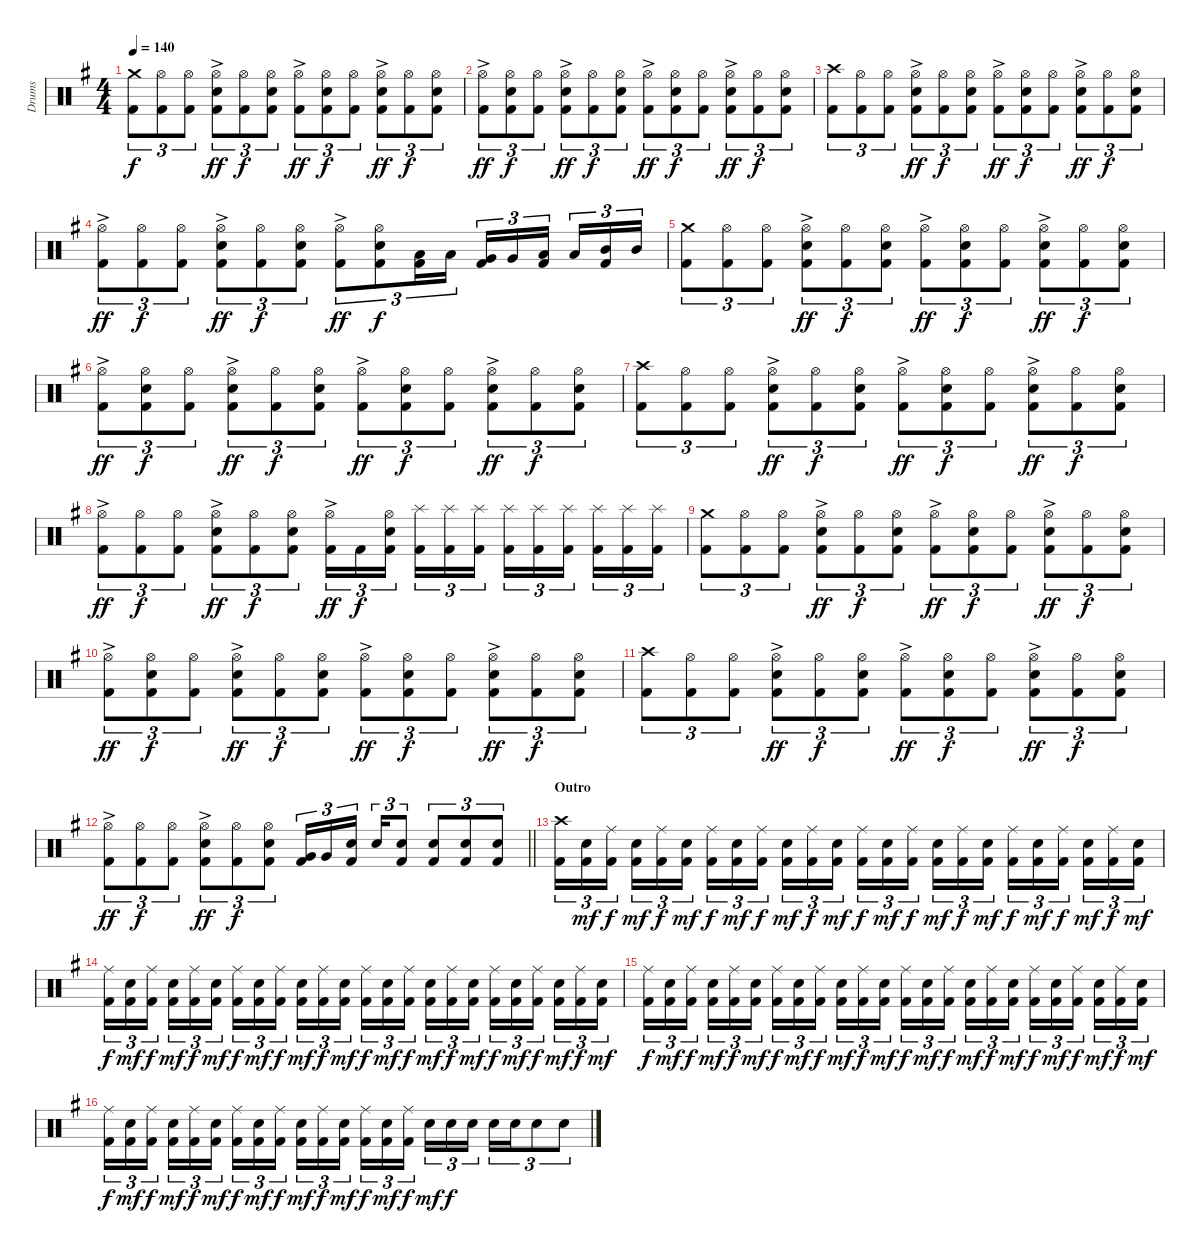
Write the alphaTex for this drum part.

\track ("Drums" "Drums") {instrument percussion}
\staff {score}
\articulation defaults
\ts (4 4)
\tempo 140
\clef neutral
\ks eminor
("Crash medium (hit)" "Kick (hit) 2").8{tu (3 2) dy f} ("Hi-Hat (open)" "Kick (hit) 2").8{tu (3 2)} ("Hi-Hat (open)" "Kick (hit) 2").8{tu (3 2)} ("Hi-Hat (open)"{ac} "Electric Snare (hit)" "Kick (hit) 2").8{tu (3 2) dy ff} ("Hi-Hat (open)" "Kick (hit) 2").8{tu (3 2) dy f} ("Hi-Hat (open)" "Electric Snare (hit)" "Kick (hit) 2").8{tu (3 2)} ("Hi-Hat (open)"{ac} "Kick (hit) 2").8{tu (3 2) dy ff} ("Hi-Hat (open)" "Electric Snare (hit)" "Kick (hit) 2").8{tu (3 2) dy f} ("Hi-Hat (open)" "Kick (hit) 2").8{tu (3 2)} ("Hi-Hat (open)"{ac} "Electric Snare (hit)" "Kick (hit) 2").8{tu (3 2) dy ff} ("Hi-Hat (open)" "Kick (hit) 2").8{tu (3 2) dy f} ("Hi-Hat (open)" "Electric Snare (hit)" "Kick (hit) 2").8{tu (3 2)} |
("Hi-Hat (open)"{ac} "Kick (hit) 2").8{tu (3 2) dy ff} ("Hi-Hat (open)" "Electric Snare (hit)" "Kick (hit) 2").8{tu (3 2) dy f} ("Hi-Hat (open)" "Kick (hit) 2").8{tu (3 2)} ("Hi-Hat (open)"{ac} "Electric Snare (hit)" "Kick (hit) 2").8{tu (3 2) dy ff} ("Hi-Hat (open)" "Kick (hit) 2").8{tu (3 2) dy f} ("Hi-Hat (open)" "Electric Snare (hit)" "Kick (hit) 2").8{tu (3 2)} ("Hi-Hat (open)"{ac} "Kick (hit) 2").8{tu (3 2) dy ff} ("Hi-Hat (open)" "Electric Snare (hit)" "Kick (hit) 2").8{tu (3 2) dy f} ("Hi-Hat (open)" "Kick (hit) 2").8{tu (3 2)} ("Hi-Hat (open)"{ac} "Electric Snare (hit)" "Kick (hit) 2").8{tu (3 2) dy ff} ("Hi-Hat (open)" "Kick (hit) 2").8{tu (3 2) dy f} ("Hi-Hat (open)" "Electric Snare (hit)" "Kick (hit) 2").8{tu (3 2)} |
("Crash high (hit)" "Kick (hit) 2").8{tu (3 2)} ("Hi-Hat (open)" "Kick (hit) 2").8{tu (3 2)} ("Hi-Hat (open)" "Kick (hit) 2").8{tu (3 2)} ("Hi-Hat (open)"{ac} "Electric Snare (hit)" "Kick (hit) 2").8{tu (3 2) dy ff} ("Hi-Hat (open)" "Kick (hit) 2").8{tu (3 2) dy f} ("Hi-Hat (open)" "Electric Snare (hit)" "Kick (hit) 2").8{tu (3 2)} ("Hi-Hat (open)"{ac} "Kick (hit) 2").8{tu (3 2) dy ff} ("Hi-Hat (open)" "Electric Snare (hit)" "Kick (hit) 2").8{tu (3 2) dy f} ("Hi-Hat (open)" "Kick (hit) 2").8{tu (3 2)} ("Hi-Hat (open)"{ac} "Electric Snare (hit)" "Kick (hit) 2").8{tu (3 2) dy ff} ("Hi-Hat (open)" "Kick (hit) 2").8{tu (3 2) dy f} ("Hi-Hat (open)" "Electric Snare (hit)" "Kick (hit) 2").8{tu (3 2)} |
("Hi-Hat (open)"{ac} "Kick (hit) 2").8{tu (3 2) dy ff} ("Hi-Hat (open)" "Kick (hit) 2").8{tu (3 2) dy f} ("Hi-Hat (open)" "Kick (hit) 2").8{tu (3 2)} ("Hi-Hat (open)"{ac} "Electric Snare (hit)" "Kick (hit) 2").8{tu (3 2) dy ff} ("Hi-Hat (open)" "Kick (hit) 2").8{tu (3 2) dy f} ("Hi-Hat (open)" "Electric Snare (hit)" "Kick (hit) 2").8{tu (3 2)} ("Hi-Hat (open)"{ac} "Kick (hit) 2").8{tu (3 2) dy ff} ("Hi-Hat (open)" "Electric Snare (hit)" "Kick (hit) 2").8{tu (3 2) dy f} ("Low Tom (hit)" "Kick (hit) 2").16{tu (3 2)} "Low Tom (hit)".16{tu (3 2)} ("Very Low Tom (hit)" "Kick (hit) 2").16{tu (3 2)} "Very Low Tom (hit)".16{tu (3 2)} ("Low Tom (hit)" "Kick (hit) 2").16{tu (3 2) beam splitsecondary} "Low Tom (hit)".16{tu (3 2)} ("Mid Tom (hit)" "Kick (hit) 2").16{tu (3 2)} "Mid Tom (hit)".16{tu (3 2)} |
("Crash medium (hit)" "Kick (hit) 2").8{tu (3 2)} ("Hi-Hat (open)" "Kick (hit) 2").8{tu (3 2)} ("Hi-Hat (open)" "Kick (hit) 2").8{tu (3 2)} ("Hi-Hat (open)"{ac} "Electric Snare (hit)" "Kick (hit) 2").8{tu (3 2) dy ff} ("Hi-Hat (open)" "Kick (hit) 2").8{tu (3 2) dy f} ("Hi-Hat (open)" "Electric Snare (hit)" "Kick (hit) 2").8{tu (3 2)} ("Hi-Hat (open)"{ac} "Kick (hit) 2").8{tu (3 2) dy ff} ("Hi-Hat (open)" "Electric Snare (hit)" "Kick (hit) 2").8{tu (3 2) dy f} ("Hi-Hat (open)" "Kick (hit) 2").8{tu (3 2)} ("Hi-Hat (open)"{ac} "Electric Snare (hit)" "Kick (hit) 2").8{tu (3 2) dy ff} ("Hi-Hat (open)" "Kick (hit) 2").8{tu (3 2) dy f} ("Hi-Hat (open)" "Electric Snare (hit)" "Kick (hit) 2").8{tu (3 2)} |
("Hi-Hat (open)"{ac} "Kick (hit) 2").8{tu (3 2) dy ff} ("Hi-Hat (open)" "Electric Snare (hit)" "Kick (hit) 2").8{tu (3 2) dy f} ("Hi-Hat (open)" "Kick (hit) 2").8{tu (3 2)} ("Hi-Hat (open)"{ac} "Electric Snare (hit)" "Kick (hit) 2").8{tu (3 2) dy ff} ("Hi-Hat (open)" "Kick (hit) 2").8{tu (3 2) dy f} ("Hi-Hat (open)" "Electric Snare (hit)" "Kick (hit) 2").8{tu (3 2)} ("Hi-Hat (open)"{ac} "Kick (hit) 2").8{tu (3 2) dy ff} ("Hi-Hat (open)" "Electric Snare (hit)" "Kick (hit) 2").8{tu (3 2) dy f} ("Hi-Hat (open)" "Kick (hit) 2").8{tu (3 2)} ("Hi-Hat (open)"{ac} "Electric Snare (hit)" "Kick (hit) 2").8{tu (3 2) dy ff} ("Hi-Hat (open)" "Kick (hit) 2").8{tu (3 2) dy f} ("Hi-Hat (open)" "Electric Snare (hit)" "Kick (hit) 2").8{tu (3 2)} |
("Crash high (hit)" "Kick (hit) 2").8{tu (3 2)} ("Hi-Hat (open)" "Kick (hit) 2").8{tu (3 2)} ("Hi-Hat (open)" "Kick (hit) 2").8{tu (3 2)} ("Hi-Hat (open)"{ac} "Electric Snare (hit)" "Kick (hit) 2").8{tu (3 2) dy ff} ("Hi-Hat (open)" "Kick (hit) 2").8{tu (3 2) dy f} ("Hi-Hat (open)" "Electric Snare (hit)" "Kick (hit) 2").8{tu (3 2)} ("Hi-Hat (open)"{ac} "Kick (hit) 2").8{tu (3 2) dy ff} ("Hi-Hat (open)" "Electric Snare (hit)" "Kick (hit) 2").8{tu (3 2) dy f} ("Hi-Hat (open)" "Kick (hit) 2").8{tu (3 2)} ("Hi-Hat (open)"{ac} "Electric Snare (hit)" "Kick (hit) 2").8{tu (3 2) dy ff} ("Hi-Hat (open)" "Kick (hit) 2").8{tu (3 2) dy f} ("Hi-Hat (open)" "Electric Snare (hit)" "Kick (hit) 2").8{tu (3 2)} |
("Hi-Hat (open)"{ac} "Kick (hit) 2").8{tu (3 2) dy ff} ("Hi-Hat (open)" "Kick (hit) 2").8{tu (3 2) dy f} ("Hi-Hat (open)" "Kick (hit) 2").8{tu (3 2)} ("Hi-Hat (open)"{ac} "Electric Snare (hit)" "Kick (hit) 2").8{tu (3 2) dy ff} ("Hi-Hat (open)" "Kick (hit) 2").8{tu (3 2) dy f} ("Hi-Hat (open)" "Electric Snare (hit)" "Kick (hit) 2").8{tu (3 2)} ("Hi-Hat (open)"{ac} "Kick (hit) 2").16{tu (3 2) dy ff} "Kick (hit) 2".16{tu (3 2) dy f} ("Hi-Hat (open)" "Electric Snare (hit)" "Kick (hit) 2").16{tu (3 2) beam splitsecondary} ("Splash (hit)" "Kick (hit) 2").16{tu (3 2)} ("Splash (hit)" "Kick (hit) 2").16{tu (3 2)} ("Splash (hit)" "Kick (hit) 2").16{tu (3 2)} ("Splash (hit)" "Kick (hit) 2").16{tu (3 2)} ("Splash (hit)" "Kick (hit) 2").16{tu (3 2)} ("Splash (hit)" "Kick (hit) 2").16{tu (3 2) beam splitsecondary} ("Splash (hit)" "Kick (hit) 2").16{tu (3 2)} ("Splash (hit)" "Kick (hit) 2").16{tu (3 2)} ("Splash (hit)" "Kick (hit) 2").16{tu (3 2)} |
("Crash medium (hit)" "Kick (hit) 2").8{tu (3 2)} ("Hi-Hat (open)" "Kick (hit) 2").8{tu (3 2)} ("Hi-Hat (open)" "Kick (hit) 2").8{tu (3 2)} ("Hi-Hat (open)"{ac} "Electric Snare (hit)" "Kick (hit) 2").8{tu (3 2) dy ff} ("Hi-Hat (open)" "Kick (hit) 2").8{tu (3 2) dy f} ("Hi-Hat (open)" "Electric Snare (hit)" "Kick (hit) 2").8{tu (3 2)} ("Hi-Hat (open)"{ac} "Kick (hit) 2").8{tu (3 2) dy ff} ("Hi-Hat (open)" "Electric Snare (hit)" "Kick (hit) 2").8{tu (3 2) dy f} ("Hi-Hat (open)" "Kick (hit) 2").8{tu (3 2)} ("Hi-Hat (open)"{ac} "Electric Snare (hit)" "Kick (hit) 2").8{tu (3 2) dy ff} ("Hi-Hat (open)" "Kick (hit) 2").8{tu (3 2) dy f} ("Hi-Hat (open)" "Electric Snare (hit)" "Kick (hit) 2").8{tu (3 2)} |
("Hi-Hat (open)"{ac} "Kick (hit) 2").8{tu (3 2) dy ff} ("Hi-Hat (open)" "Electric Snare (hit)" "Kick (hit) 2").8{tu (3 2) dy f} ("Hi-Hat (open)" "Kick (hit) 2").8{tu (3 2)} ("Hi-Hat (open)"{ac} "Electric Snare (hit)" "Kick (hit) 2").8{tu (3 2) dy ff} ("Hi-Hat (open)" "Kick (hit) 2").8{tu (3 2) dy f} ("Hi-Hat (open)" "Electric Snare (hit)" "Kick (hit) 2").8{tu (3 2)} ("Hi-Hat (open)"{ac} "Kick (hit) 2").8{tu (3 2) dy ff} ("Hi-Hat (open)" "Electric Snare (hit)" "Kick (hit) 2").8{tu (3 2) dy f} ("Hi-Hat (open)" "Kick (hit) 2").8{tu (3 2)} ("Hi-Hat (open)"{ac} "Electric Snare (hit)" "Kick (hit) 2").8{tu (3 2) dy ff} ("Hi-Hat (open)" "Kick (hit) 2").8{tu (3 2) dy f} ("Hi-Hat (open)" "Electric Snare (hit)" "Kick (hit) 2").8{tu (3 2)} |
("Crash high (hit)" "Kick (hit) 2").8{tu (3 2)} ("Hi-Hat (open)" "Kick (hit) 2").8{tu (3 2)} ("Hi-Hat (open)" "Kick (hit) 2").8{tu (3 2)} ("Hi-Hat (open)"{ac} "Electric Snare (hit)" "Kick (hit) 2").8{tu (3 2) dy ff} ("Hi-Hat (open)" "Kick (hit) 2").8{tu (3 2) dy f} ("Hi-Hat (open)" "Electric Snare (hit)" "Kick (hit) 2").8{tu (3 2)} ("Hi-Hat (open)"{ac} "Kick (hit) 2").8{tu (3 2) dy ff} ("Hi-Hat (open)" "Electric Snare (hit)" "Kick (hit) 2").8{tu (3 2) dy f} ("Hi-Hat (open)" "Kick (hit) 2").8{tu (3 2)} ("Hi-Hat (open)"{ac} "Electric Snare (hit)" "Kick (hit) 2").8{tu (3 2) dy ff} ("Hi-Hat (open)" "Kick (hit) 2").8{tu (3 2) dy f} ("Hi-Hat (open)" "Electric Snare (hit)" "Kick (hit) 2").8{tu (3 2)} |
\barLineRight lightlight
("Hi-Hat (open)"{ac} "Kick (hit) 2").8{tu (3 2) dy ff} ("Hi-Hat (open)" "Kick (hit) 2").8{tu (3 2) dy f} ("Hi-Hat (open)" "Kick (hit) 2").8{tu (3 2)} ("Hi-Hat (open)"{ac} "Electric Snare (hit)" "Kick (hit) 2").8{tu (3 2) dy ff} ("Hi-Hat (open)" "Kick (hit) 2").8{tu (3 2) dy f} ("Hi-Hat (open)" "Electric Snare (hit)" "Kick (hit) 2").8{tu (3 2)} ("Very Low Tom (hit)" "Kick (hit) 2").16{tu (3 2)} "Very Low Tom (hit)".16{tu (3 2)} ("Electric Snare (hit)" "Kick (hit) 2").16{tu (3 2) beam splitsecondary} "Electric Snare (hit)".16{tu (3 2)} ("Electric Snare (hit)" "Kick (hit) 2").8{tu (3 2)} ("Electric Snare (hit)" "Kick (hit) 2").8{tu (3 2)} ("Electric Snare (hit)" "Kick (hit) 2").8{tu (3 2)} ("Electric Snare (hit)" "Kick (hit) 2").8{tu (3 2)} |
\section ("" "Outro")
("Crash high (hit)" "Kick (hit) 2").16{tu (3 2)} ("Electric Snare (hit)" "Kick (hit) 2").16{tu (3 2) dy mf} ("Ride (middle)" "Kick (hit) 2").16{tu (3 2) dy f beam splitsecondary} ("Electric Snare (hit)" "Kick (hit) 2").16{tu (3 2) dy mf} ("Ride (middle)" "Kick (hit) 2").16{tu (3 2) dy f} ("Electric Snare (hit)" "Kick (hit) 2").16{tu (3 2) dy mf} ("Ride (middle)" "Kick (hit) 2").16{tu (3 2) dy f} ("Electric Snare (hit)" "Kick (hit) 2").16{tu (3 2) dy mf} ("Ride (middle)" "Kick (hit) 2").16{tu (3 2) dy f beam splitsecondary} ("Electric Snare (hit)" "Kick (hit) 2").16{tu (3 2) dy mf} ("Ride (middle)" "Kick (hit) 2").16{tu (3 2) dy f} ("Electric Snare (hit)" "Kick (hit) 2").16{tu (3 2) dy mf} ("Ride (middle)" "Kick (hit) 2").16{tu (3 2) dy f} ("Electric Snare (hit)" "Kick (hit) 2").16{tu (3 2) dy mf} ("Ride (middle)" "Kick (hit) 2").16{tu (3 2) dy f beam splitsecondary} ("Electric Snare (hit)" "Kick (hit) 2").16{tu (3 2) dy mf} ("Ride (middle)" "Kick (hit) 2").16{tu (3 2) dy f} ("Electric Snare (hit)" "Kick (hit) 2").16{tu (3 2) dy mf} ("Ride (middle)" "Kick (hit) 2").16{tu (3 2) dy f} ("Electric Snare (hit)" "Kick (hit) 2").16{tu (3 2) dy mf} ("Ride (middle)" "Kick (hit) 2").16{tu (3 2) dy f beam splitsecondary} ("Electric Snare (hit)" "Kick (hit) 2").16{tu (3 2) dy mf} ("Ride (middle)" "Kick (hit) 2").16{tu (3 2) dy f} ("Electric Snare (hit)" "Kick (hit) 2").16{tu (3 2) dy mf} |
("Ride (middle)" "Kick (hit) 2").16{tu (3 2) dy f} ("Electric Snare (hit)" "Kick (hit) 2").16{tu (3 2) dy mf} ("Ride (middle)" "Kick (hit) 2").16{tu (3 2) dy f beam splitsecondary} ("Electric Snare (hit)" "Kick (hit) 2").16{tu (3 2) dy mf} ("Ride (middle)" "Kick (hit) 2").16{tu (3 2) dy f} ("Electric Snare (hit)" "Kick (hit) 2").16{tu (3 2) dy mf} ("Ride (middle)" "Kick (hit) 2").16{tu (3 2) dy f} ("Electric Snare (hit)" "Kick (hit) 2").16{tu (3 2) dy mf} ("Ride (middle)" "Kick (hit) 2").16{tu (3 2) dy f beam splitsecondary} ("Electric Snare (hit)" "Kick (hit) 2").16{tu (3 2) dy mf} ("Ride (middle)" "Kick (hit) 2").16{tu (3 2) dy f} ("Electric Snare (hit)" "Kick (hit) 2").16{tu (3 2) dy mf} ("Ride (middle)" "Kick (hit) 2").16{tu (3 2) dy f} ("Electric Snare (hit)" "Kick (hit) 2").16{tu (3 2) dy mf} ("Ride (middle)" "Kick (hit) 2").16{tu (3 2) dy f beam splitsecondary} ("Electric Snare (hit)" "Kick (hit) 2").16{tu (3 2) dy mf} ("Ride (middle)" "Kick (hit) 2").16{tu (3 2) dy f} ("Electric Snare (hit)" "Kick (hit) 2").16{tu (3 2) dy mf} ("Ride (middle)" "Kick (hit) 2").16{tu (3 2) dy f} ("Electric Snare (hit)" "Kick (hit) 2").16{tu (3 2) dy mf} ("Ride (middle)" "Kick (hit) 2").16{tu (3 2) dy f beam splitsecondary} ("Electric Snare (hit)" "Kick (hit) 2").16{tu (3 2) dy mf} ("Ride (middle)" "Kick (hit) 2").16{tu (3 2) dy f} ("Electric Snare (hit)" "Kick (hit) 2").16{tu (3 2) dy mf} |
("Ride (middle)" "Kick (hit) 2").16{tu (3 2) dy f} ("Electric Snare (hit)" "Kick (hit) 2").16{tu (3 2) dy mf} ("Ride (middle)" "Kick (hit) 2").16{tu (3 2) dy f beam splitsecondary} ("Electric Snare (hit)" "Kick (hit) 2").16{tu (3 2) dy mf} ("Ride (middle)" "Kick (hit) 2").16{tu (3 2) dy f} ("Electric Snare (hit)" "Kick (hit) 2").16{tu (3 2) dy mf} ("Ride (middle)" "Kick (hit) 2").16{tu (3 2) dy f} ("Electric Snare (hit)" "Kick (hit) 2").16{tu (3 2) dy mf} ("Ride (middle)" "Kick (hit) 2").16{tu (3 2) dy f beam splitsecondary} ("Electric Snare (hit)" "Kick (hit) 2").16{tu (3 2) dy mf} ("Ride (middle)" "Kick (hit) 2").16{tu (3 2) dy f} ("Electric Snare (hit)" "Kick (hit) 2").16{tu (3 2) dy mf} ("Ride (middle)" "Kick (hit) 2").16{tu (3 2) dy f} ("Electric Snare (hit)" "Kick (hit) 2").16{tu (3 2) dy mf} ("Ride (middle)" "Kick (hit) 2").16{tu (3 2) dy f beam splitsecondary} ("Electric Snare (hit)" "Kick (hit) 2").16{tu (3 2) dy mf} ("Ride (middle)" "Kick (hit) 2").16{tu (3 2) dy f} ("Electric Snare (hit)" "Kick (hit) 2").16{tu (3 2) dy mf} ("Ride (middle)" "Kick (hit) 2").16{tu (3 2) dy f} ("Electric Snare (hit)" "Kick (hit) 2").16{tu (3 2) dy mf} ("Ride (middle)" "Kick (hit) 2").16{tu (3 2) dy f beam splitsecondary} ("Electric Snare (hit)" "Kick (hit) 2").16{tu (3 2) dy mf} ("Ride (middle)" "Kick (hit) 2").16{tu (3 2) dy f} ("Electric Snare (hit)" "Kick (hit) 2").16{tu (3 2) dy mf} |
("Ride (middle)" "Kick (hit) 2").16{tu (3 2) dy f} ("Electric Snare (hit)" "Kick (hit) 2").16{tu (3 2) dy mf} ("Ride (middle)" "Kick (hit) 2").16{tu (3 2) dy f beam splitsecondary} ("Electric Snare (hit)" "Kick (hit) 2").16{tu (3 2) dy mf} ("Ride (middle)" "Kick (hit) 2").16{tu (3 2) dy f} ("Electric Snare (hit)" "Kick (hit) 2").16{tu (3 2) dy mf} ("Ride (middle)" "Kick (hit) 2").16{tu (3 2) dy f} ("Electric Snare (hit)" "Kick (hit) 2").16{tu (3 2) dy mf} ("Ride (middle)" "Kick (hit) 2").16{tu (3 2) dy f beam splitsecondary} ("Electric Snare (hit)" "Kick (hit) 2").16{tu (3 2) dy mf} ("Ride (middle)" "Kick (hit) 2").16{tu (3 2) dy f} ("Electric Snare (hit)" "Kick (hit) 2").16{tu (3 2) dy mf} ("Ride (middle)" "Kick (hit) 2").16{tu (3 2) dy f} ("Electric Snare (hit)" "Kick (hit) 2").16{tu (3 2) dy mf} ("Ride (middle)" "Kick (hit) 2").16{tu (3 2) dy f beam splitsecondary} "Electric Snare (hit)".16{tu (3 2) dy mf} "Electric Snare (hit)".16{tu (3 2) dy f} "Electric Snare (hit)".16{tu (3 2)} "Electric Snare (hit)".16{tu (3 2)} "Electric Snare (hit)".16{tu (3 2)} "Electric Snare (hit)".8{tu (3 2)} "Electric Snare (hit)".8{tu (3 2)}
